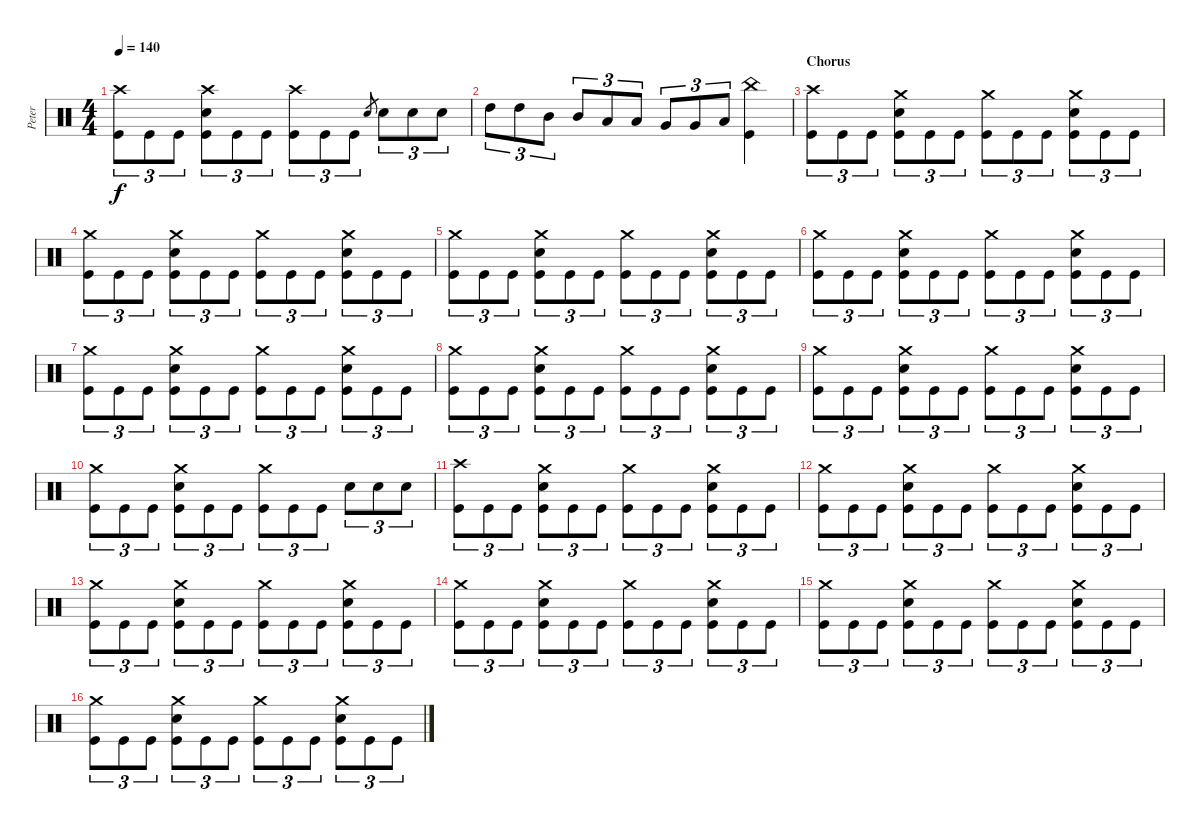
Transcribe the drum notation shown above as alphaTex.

\track ("Peter" "Peter") {instrument percussion}
\staff {score}
\articulation defaults
\ts (4 4)
\tempo 140
\clef neutral
\ks c
("Crash high (hit)" "Kick (hit)").8{tu (3 2) dy f} "Kick (hit)".8{tu (3 2)} "Kick (hit)".8{tu (3 2)} ("Crash high (hit)" "Electric Snare (hit)" "Kick (hit)").8{tu (3 2)} "Kick (hit)".8{tu (3 2)} "Kick (hit)".8{tu (3 2)} ("Crash high (hit)" "Kick (hit)").8{tu (3 2)} "Kick (hit)".8{tu (3 2)} "Kick (hit)".8{tu (3 2)} "Electric Snare (hit)".8{gr} "Electric Snare (hit)".8{tu (3 2)} "Electric Snare (hit)".8{tu (3 2)} "Electric Snare (hit)".8{tu (3 2)} |
"High Tom (hit)".8{tu (3 2)} "High Tom (hit)".8{tu (3 2)} "Mid Tom (hit)".8{tu (3 2)} "Mid Tom (hit)".8{tu (3 2)} "Low Tom (hit)".8{tu (3 2)} "Low Tom (hit)".8{tu (3 2)} "Very Low Tom (hit)".8{tu (3 2)} "Very Low Tom (hit)".8{tu (3 2)} "Low Floor Tom (hit)".8{tu (3 2)} ("China (hit)" "Kick (hit)").4 |
\section ("" "Chorus")
("Crash high (hit)" "Kick (hit)").8{tu (3 2)} "Kick (hit)".8{tu (3 2)} "Kick (hit)".8{tu (3 2)} ("Crash medium (hit)" "Electric Snare (hit)" "Kick (hit)").8{tu (3 2)} "Kick (hit)".8{tu (3 2)} "Kick (hit)".8{tu (3 2)} ("Crash medium (hit)" "Kick (hit)").8{tu (3 2)} "Kick (hit)".8{tu (3 2)} "Kick (hit)".8{tu (3 2)} ("Crash medium (hit)" "Electric Snare (hit)" "Kick (hit)").8{tu (3 2)} "Kick (hit)".8{tu (3 2)} "Kick (hit)".8{tu (3 2)} |
("Crash medium (hit)" "Kick (hit)").8{tu (3 2)} "Kick (hit)".8{tu (3 2)} "Kick (hit)".8{tu (3 2)} ("Crash medium (hit)" "Electric Snare (hit)" "Kick (hit)").8{tu (3 2)} "Kick (hit)".8{tu (3 2)} "Kick (hit)".8{tu (3 2)} ("Crash medium (hit)" "Kick (hit)").8{tu (3 2)} "Kick (hit)".8{tu (3 2)} "Kick (hit)".8{tu (3 2)} ("Crash medium (hit)" "Electric Snare (hit)" "Kick (hit)").8{tu (3 2)} "Kick (hit)".8{tu (3 2)} "Kick (hit)".8{tu (3 2)} |
("Crash medium (hit)" "Kick (hit)").8{tu (3 2)} "Kick (hit)".8{tu (3 2)} "Kick (hit)".8{tu (3 2)} ("Crash medium (hit)" "Electric Snare (hit)" "Kick (hit)").8{tu (3 2)} "Kick (hit)".8{tu (3 2)} "Kick (hit)".8{tu (3 2)} ("Crash medium (hit)" "Kick (hit)").8{tu (3 2)} "Kick (hit)".8{tu (3 2)} "Kick (hit)".8{tu (3 2)} ("Crash medium (hit)" "Electric Snare (hit)" "Kick (hit)").8{tu (3 2)} "Kick (hit)".8{tu (3 2)} "Kick (hit)".8{tu (3 2)} |
("Crash medium (hit)" "Kick (hit)").8{tu (3 2)} "Kick (hit)".8{tu (3 2)} "Kick (hit)".8{tu (3 2)} ("Crash medium (hit)" "Electric Snare (hit)" "Kick (hit)").8{tu (3 2)} "Kick (hit)".8{tu (3 2)} "Kick (hit)".8{tu (3 2)} ("Crash medium (hit)" "Kick (hit)").8{tu (3 2)} "Kick (hit)".8{tu (3 2)} "Kick (hit)".8{tu (3 2)} ("Crash medium (hit)" "Electric Snare (hit)" "Kick (hit)").8{tu (3 2)} "Kick (hit)".8{tu (3 2)} "Kick (hit)".8{tu (3 2)} |
("Crash medium (hit)" "Kick (hit)").8{tu (3 2)} "Kick (hit)".8{tu (3 2)} "Kick (hit)".8{tu (3 2)} ("Crash medium (hit)" "Electric Snare (hit)" "Kick (hit)").8{tu (3 2)} "Kick (hit)".8{tu (3 2)} "Kick (hit)".8{tu (3 2)} ("Crash medium (hit)" "Kick (hit)").8{tu (3 2)} "Kick (hit)".8{tu (3 2)} "Kick (hit)".8{tu (3 2)} ("Crash medium (hit)" "Electric Snare (hit)" "Kick (hit)").8{tu (3 2)} "Kick (hit)".8{tu (3 2)} "Kick (hit)".8{tu (3 2)} |
("Crash medium (hit)" "Kick (hit)").8{tu (3 2)} "Kick (hit)".8{tu (3 2)} "Kick (hit)".8{tu (3 2)} ("Crash medium (hit)" "Electric Snare (hit)" "Kick (hit)").8{tu (3 2)} "Kick (hit)".8{tu (3 2)} "Kick (hit)".8{tu (3 2)} ("Crash medium (hit)" "Kick (hit)").8{tu (3 2)} "Kick (hit)".8{tu (3 2)} "Kick (hit)".8{tu (3 2)} ("Crash medium (hit)" "Electric Snare (hit)" "Kick (hit)").8{tu (3 2)} "Kick (hit)".8{tu (3 2)} "Kick (hit)".8{tu (3 2)} |
("Crash medium (hit)" "Kick (hit)").8{tu (3 2)} "Kick (hit)".8{tu (3 2)} "Kick (hit)".8{tu (3 2)} ("Crash medium (hit)" "Electric Snare (hit)" "Kick (hit)").8{tu (3 2)} "Kick (hit)".8{tu (3 2)} "Kick (hit)".8{tu (3 2)} ("Crash medium (hit)" "Kick (hit)").8{tu (3 2)} "Kick (hit)".8{tu (3 2)} "Kick (hit)".8{tu (3 2)} ("Crash medium (hit)" "Electric Snare (hit)" "Kick (hit)").8{tu (3 2)} "Kick (hit)".8{tu (3 2)} "Kick (hit)".8{tu (3 2)} |
("Crash medium (hit)" "Kick (hit)").8{tu (3 2)} "Kick (hit)".8{tu (3 2)} "Kick (hit)".8{tu (3 2)} ("Crash medium (hit)" "Electric Snare (hit)" "Kick (hit)").8{tu (3 2)} "Kick (hit)".8{tu (3 2)} "Kick (hit)".8{tu (3 2)} ("Crash medium (hit)" "Kick (hit)").8{tu (3 2)} "Kick (hit)".8{tu (3 2)} "Kick (hit)".8{tu (3 2)} "Electric Snare (hit)".8{tu (3 2)} "Electric Snare (hit)".8{tu (3 2)} "Electric Snare (hit)".8{tu (3 2)} |
("Crash high (hit)" "Kick (hit)").8{tu (3 2)} "Kick (hit)".8{tu (3 2)} "Kick (hit)".8{tu (3 2)} ("Crash medium (hit)" "Electric Snare (hit)" "Kick (hit)").8{tu (3 2)} "Kick (hit)".8{tu (3 2)} "Kick (hit)".8{tu (3 2)} ("Crash medium (hit)" "Kick (hit)").8{tu (3 2)} "Kick (hit)".8{tu (3 2)} "Kick (hit)".8{tu (3 2)} ("Crash medium (hit)" "Electric Snare (hit)" "Kick (hit)").8{tu (3 2)} "Kick (hit)".8{tu (3 2)} "Kick (hit)".8{tu (3 2)} |
("Crash medium (hit)" "Kick (hit)").8{tu (3 2)} "Kick (hit)".8{tu (3 2)} "Kick (hit)".8{tu (3 2)} ("Crash medium (hit)" "Electric Snare (hit)" "Kick (hit)").8{tu (3 2)} "Kick (hit)".8{tu (3 2)} "Kick (hit)".8{tu (3 2)} ("Crash medium (hit)" "Kick (hit)").8{tu (3 2)} "Kick (hit)".8{tu (3 2)} "Kick (hit)".8{tu (3 2)} ("Crash medium (hit)" "Electric Snare (hit)" "Kick (hit)").8{tu (3 2)} "Kick (hit)".8{tu (3 2)} "Kick (hit)".8{tu (3 2)} |
("Crash medium (hit)" "Kick (hit)").8{tu (3 2)} "Kick (hit)".8{tu (3 2)} "Kick (hit)".8{tu (3 2)} ("Crash medium (hit)" "Electric Snare (hit)" "Kick (hit)").8{tu (3 2)} "Kick (hit)".8{tu (3 2)} "Kick (hit)".8{tu (3 2)} ("Crash medium (hit)" "Kick (hit)").8{tu (3 2)} "Kick (hit)".8{tu (3 2)} "Kick (hit)".8{tu (3 2)} ("Crash medium (hit)" "Electric Snare (hit)" "Kick (hit)").8{tu (3 2)} "Kick (hit)".8{tu (3 2)} "Kick (hit)".8{tu (3 2)} |
("Crash medium (hit)" "Kick (hit)").8{tu (3 2)} "Kick (hit)".8{tu (3 2)} "Kick (hit)".8{tu (3 2)} ("Crash medium (hit)" "Electric Snare (hit)" "Kick (hit)").8{tu (3 2)} "Kick (hit)".8{tu (3 2)} "Kick (hit)".8{tu (3 2)} ("Crash medium (hit)" "Kick (hit)").8{tu (3 2)} "Kick (hit)".8{tu (3 2)} "Kick (hit)".8{tu (3 2)} ("Crash medium (hit)" "Electric Snare (hit)" "Kick (hit)").8{tu (3 2)} "Kick (hit)".8{tu (3 2)} "Kick (hit)".8{tu (3 2)} |
("Crash medium (hit)" "Kick (hit)").8{tu (3 2)} "Kick (hit)".8{tu (3 2)} "Kick (hit)".8{tu (3 2)} ("Crash medium (hit)" "Electric Snare (hit)" "Kick (hit)").8{tu (3 2)} "Kick (hit)".8{tu (3 2)} "Kick (hit)".8{tu (3 2)} ("Crash medium (hit)" "Kick (hit)").8{tu (3 2)} "Kick (hit)".8{tu (3 2)} "Kick (hit)".8{tu (3 2)} ("Crash medium (hit)" "Electric Snare (hit)" "Kick (hit)").8{tu (3 2)} "Kick (hit)".8{tu (3 2)} "Kick (hit)".8{tu (3 2)} |
("Crash medium (hit)" "Kick (hit)").8{tu (3 2)} "Kick (hit)".8{tu (3 2)} "Kick (hit)".8{tu (3 2)} ("Crash medium (hit)" "Electric Snare (hit)" "Kick (hit)").8{tu (3 2)} "Kick (hit)".8{tu (3 2)} "Kick (hit)".8{tu (3 2)} ("Crash medium (hit)" "Kick (hit)").8{tu (3 2)} "Kick (hit)".8{tu (3 2)} "Kick (hit)".8{tu (3 2)} ("Crash medium (hit)" "Electric Snare (hit)" "Kick (hit)").8{tu (3 2)} "Kick (hit)".8{tu (3 2)} "Kick (hit)".8{tu (3 2)}
